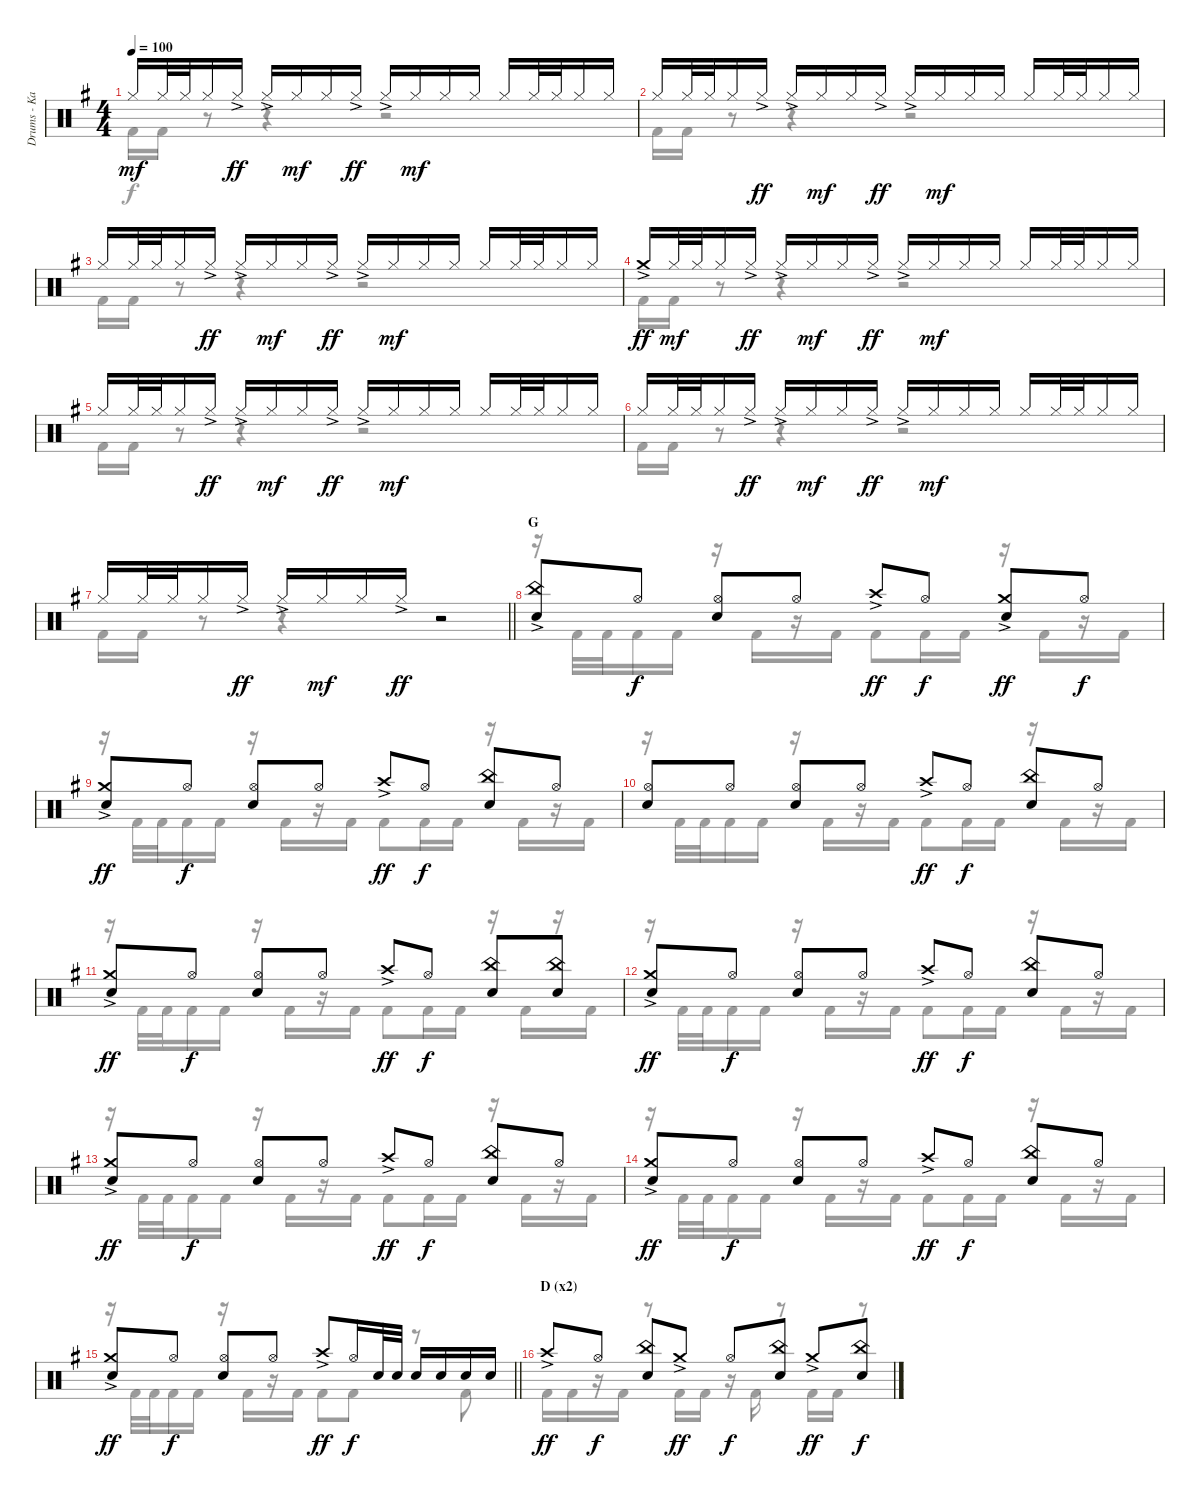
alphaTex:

\track ("Drums - Kai" "Drums - Ka") {instrument percussion}
\staff {score}
\articulation defaults
\voice
\ts (4 4)
\tempo 100
\clef neutral
\ks g "Hi-Hat (closed)".16{dy mf} "Hi-Hat (closed)".32 "Hi-Hat (closed)".32 "Hi-Hat (closed)".16 "Hi-Hat (closed)"{ac}.16{dy ff} "Hi-Hat (closed)"{ac}.16 "Hi-Hat (closed)".16{dy mf} "Hi-Hat (closed)".16 "Hi-Hat (closed)"{ac}.16{dy ff} "Hi-Hat (closed)"{ac}.16 "Hi-Hat (closed)".16{dy mf} "Hi-Hat (closed)".16 "Hi-Hat (closed)".16 "Hi-Hat (closed)".16 "Hi-Hat (closed)".32 "Hi-Hat (closed)".32 "Hi-Hat (closed)".16 "Hi-Hat (closed)".16
|
"Hi-Hat (closed)".16 "Hi-Hat (closed)".32 "Hi-Hat (closed)".32 "Hi-Hat (closed)".16 "Hi-Hat (closed)"{ac}.16{dy ff} "Hi-Hat (closed)"{ac}.16 "Hi-Hat (closed)".16{dy mf} "Hi-Hat (closed)".16 "Hi-Hat (closed)"{ac}.16{dy ff} "Hi-Hat (closed)"{ac}.16 "Hi-Hat (closed)".16{dy mf} "Hi-Hat (closed)".16 "Hi-Hat (closed)".16 "Hi-Hat (closed)".16 "Hi-Hat (closed)".32 "Hi-Hat (closed)".32 "Hi-Hat (closed)".16 "Hi-Hat (closed)".16 |
"Hi-Hat (closed)".16 "Hi-Hat (closed)".32 "Hi-Hat (closed)".32 "Hi-Hat (closed)".16 "Hi-Hat (closed)"{ac}.16{dy ff} "Hi-Hat (closed)"{ac}.16 "Hi-Hat (closed)".16{dy mf} "Hi-Hat (closed)".16 "Hi-Hat (closed)"{ac}.16{dy ff} "Hi-Hat (closed)"{ac}.16 "Hi-Hat (closed)".16{dy mf} "Hi-Hat (closed)".16 "Hi-Hat (closed)".16 "Hi-Hat (closed)".16 "Hi-Hat (closed)".32 "Hi-Hat (closed)".32 "Hi-Hat (closed)".16 "Hi-Hat (closed)".16 |
"Crash medium (hit)"{ac}.16{dy ff} "Hi-Hat (closed)".32{dy mf} "Hi-Hat (closed)".32 "Hi-Hat (closed)".16 "Hi-Hat (closed)"{ac}.16{dy ff} "Hi-Hat (closed)"{ac}.16 "Hi-Hat (closed)".16{dy mf} "Hi-Hat (closed)".16 "Hi-Hat (closed)"{ac}.16{dy ff} "Hi-Hat (closed)"{ac}.16 "Hi-Hat (closed)".16{dy mf} "Hi-Hat (closed)".16 "Hi-Hat (closed)".16 "Hi-Hat (closed)".16 "Hi-Hat (closed)".32 "Hi-Hat (closed)".32 "Hi-Hat (closed)".16 "Hi-Hat (closed)".16 |
"Hi-Hat (closed)".16 "Hi-Hat (closed)".32 "Hi-Hat (closed)".32 "Hi-Hat (closed)".16 "Hi-Hat (closed)"{ac}.16{dy ff} "Hi-Hat (closed)"{ac}.16 "Hi-Hat (closed)".16{dy mf} "Hi-Hat (closed)".16 "Hi-Hat (closed)"{ac}.16{dy ff} "Hi-Hat (closed)"{ac}.16 "Hi-Hat (closed)".16{dy mf} "Hi-Hat (closed)".16 "Hi-Hat (closed)".16 "Hi-Hat (closed)".16 "Hi-Hat (closed)".32 "Hi-Hat (closed)".32 "Hi-Hat (closed)".16 "Hi-Hat (closed)".16 |
"Hi-Hat (closed)".16 "Hi-Hat (closed)".32 "Hi-Hat (closed)".32 "Hi-Hat (closed)".16 "Hi-Hat (closed)"{ac}.16{dy ff} "Hi-Hat (closed)"{ac}.16 "Hi-Hat (closed)".16{dy mf} "Hi-Hat (closed)".16 "Hi-Hat (closed)"{ac}.16{dy ff} "Hi-Hat (closed)"{ac}.16 "Hi-Hat (closed)".16{dy mf} "Hi-Hat (closed)".16 "Hi-Hat (closed)".16 "Hi-Hat (closed)".16 "Hi-Hat (closed)".32 "Hi-Hat (closed)".32 "Hi-Hat (closed)".16 "Hi-Hat (closed)".16 |
\barLineRight lightlight "Hi-Hat (closed)".16 "Hi-Hat (closed)".32 "Hi-Hat (closed)".32 "Hi-Hat (closed)".16 "Hi-Hat (closed)"{ac}.16{dy ff} "Hi-Hat (closed)"{ac}.16 "Hi-Hat (closed)".16{dy mf} "Hi-Hat (closed)".16 "Hi-Hat (closed)"{ac}.16{dy ff}
r.2 |
\section ("" "G")
("China (hit)"{ac} "Electric Snare (hit)").8 "Hi-Hat (open)".8{dy f} ("Hi-Hat (open)" "Electric Snare (hit)").8 "Hi-Hat (open)".8 "Crash high (hit)"{ac}.8{dy ff} "Hi-Hat (open)".8{dy f} ("Crash medium (hit)"{ac} "Electric Snare (hit)").8{dy ff} "Hi-Hat (open)".8{dy f} |
("Crash medium (hit)"{ac} "Electric Snare (hit)").8{dy ff} "Hi-Hat (open)".8{dy f} ("Hi-Hat (open)" "Electric Snare (hit)").8 "Hi-Hat (open)".8 "Crash high (hit)"{ac}.8{dy ff} "Hi-Hat (open)".8{dy f} ("China (hit)" "Electric Snare (hit)").8 "Hi-Hat (open)".8 |
("Hi-Hat (open)" "Electric Snare (hit)").8 "Hi-Hat (open)".8 ("Hi-Hat (open)" "Electric Snare (hit)").8 "Hi-Hat (open)".8 "Crash high (hit)"{ac}.8{dy ff} "Hi-Hat (open)".8{dy f} ("China (hit)" "Electric Snare (hit)").8 "Hi-Hat (open)".8 |
("Crash medium (hit)"{ac} "Electric Snare (hit)").8{dy ff} "Hi-Hat (open)".8{dy f} ("Hi-Hat (open)" "Electric Snare (hit)").8 "Hi-Hat (open)".8 "Crash high (hit)"{ac}.8{dy ff} "Hi-Hat (open)".8{dy f} ("China (hit)" "Electric Snare (hit)").8 ("China (hit)" "Electric Snare (hit)").8 |
("Crash medium (hit)"{ac} "Electric Snare (hit)").8{dy ff} "Hi-Hat (open)".8{dy f} ("Hi-Hat (open)" "Electric Snare (hit)").8 "Hi-Hat (open)".8 "Crash high (hit)"{ac}.8{dy ff} "Hi-Hat (open)".8{dy f} ("China (hit)" "Electric Snare (hit)").8 "Hi-Hat (open)".8 |
("Crash medium (hit)"{ac} "Electric Snare (hit)").8{dy ff} "Hi-Hat (open)".8{dy f} ("Hi-Hat (open)" "Electric Snare (hit)").8 "Hi-Hat (open)".8 "Crash high (hit)"{ac}.8{dy ff} "Hi-Hat (open)".8{dy f} ("China (hit)" "Electric Snare (hit)").8 "Hi-Hat (open)".8 |
("Crash medium (hit)"{ac} "Electric Snare (hit)").8{dy ff} "Hi-Hat (open)".8{dy f} ("Hi-Hat (open)" "Electric Snare (hit)").8 "Hi-Hat (open)".8 "Crash high (hit)"{ac}.8{dy ff} "Hi-Hat (open)".8{dy f} ("China (hit)" "Electric Snare (hit)").8 "Hi-Hat (open)".8 |
\barLineRight lightlight
("Crash medium (hit)"{ac} "Electric Snare (hit)").8{dy ff} "Hi-Hat (open)".8{dy f} ("Hi-Hat (open)" "Electric Snare (hit)").8 "Hi-Hat (open)".8 "Crash high (hit)"{ac}.8{dy ff} "Hi-Hat (open)".16{dy f} "Electric Snare (hit)".32 "Electric Snare (hit)".32 "Electric Snare (hit)".16 "Electric Snare (hit)".16 "Electric Snare (hit)".16 "Electric Snare (hit)".16 |
\section ("" "D (x2)")
"Crash high (hit)"{ac}.8{dy ff} "Hi-Hat (open)".8{dy f} ("China (hit)" "Electric Snare (hit)").8 "Crash medium (hit)"{ac}.8{dy ff} "Hi-Hat (open)".8{dy f} ("China (hit)" "Electric Snare (hit)").8 "Crash medium (hit)"{ac}.8{dy ff} ("China (hit)" "Electric Snare (hit)").8{dy f}
\voice
\clef neutral
\ottava regular
\simile none
\ks g "Kick (hit) 2".16{dy f} "Kick (hit) 2".16
r.8 r.4 r.2 |
"Kick (hit) 2".16 "Kick (hit) 2".16 r.8 r.4 r.2 |
"Kick (hit) 2".16 "Kick (hit) 2".16 r.8 r.4 r.2 |
"Kick (hit) 2".16 "Kick (hit) 2".16 r.8 r.4 r.2 |
"Kick (hit) 2".16 "Kick (hit) 2".16 r.8 r.4 r.2 |
"Kick (hit) 2".16 "Kick (hit) 2".16 r.8 r.4 r.2 |
\barLineRight lightlight "Kick (hit) 2".16 "Kick (hit) 2".16
r.8 r.4 r.2 |
r.16 "Kick (hit) 2".32 "Kick (hit) 2".32 "Kick (hit) 2".16 "Kick (hit) 2".16 r.16 "Kick (hit) 2".16 r.16 "Kick (hit) 2".16 "Kick (hit) 2".8 "Kick (hit) 2".16 "Kick (hit) 2".16 r.16 "Kick (hit) 2".16 r.16 "Kick (hit) 2".16 |
r.16 "Kick (hit) 2".32 "Kick (hit) 2".32 "Kick (hit) 2".16 "Kick (hit) 2".16 r.16 "Kick (hit) 2".16 r.16 "Kick (hit) 2".16 "Kick (hit) 2".8 "Kick (hit) 2".16 "Kick (hit) 2".16 r.16 "Kick (hit) 2".16 r.16 "Kick (hit) 2".16 |
r.16 "Kick (hit) 2".32 "Kick (hit) 2".32 "Kick (hit) 2".16 "Kick (hit) 2".16 r.16 "Kick (hit) 2".16 r.16 "Kick (hit) 2".16 "Kick (hit) 2".8 "Kick (hit) 2".16 "Kick (hit) 2".16 r.16 "Kick (hit) 2".16 r.16 "Kick (hit) 2".16 |
r.16 "Kick (hit) 2".32 "Kick (hit) 2".32 "Kick (hit) 2".16 "Kick (hit) 2".16 r.16 "Kick (hit) 2".16 r.16 "Kick (hit) 2".16 "Kick (hit) 2".8 "Kick (hit) 2".16 "Kick (hit) 2".16 r.16 "Kick (hit) 2".16 r.16 "Kick (hit) 2".16 |
r.16 "Kick (hit) 2".32 "Kick (hit) 2".32 "Kick (hit) 2".16 "Kick (hit) 2".16 r.16 "Kick (hit) 2".16 r.16 "Kick (hit) 2".16 "Kick (hit) 2".8 "Kick (hit) 2".16 "Kick (hit) 2".16 r.16 "Kick (hit) 2".16 r.16 "Kick (hit) 2".16 |
r.16 "Kick (hit) 2".32 "Kick (hit) 2".32 "Kick (hit) 2".16 "Kick (hit) 2".16 r.16 "Kick (hit) 2".16 r.16 "Kick (hit) 2".16 "Kick (hit) 2".8 "Kick (hit) 2".16 "Kick (hit) 2".16 r.16 "Kick (hit) 2".16 r.16 "Kick (hit) 2".16 |
r.16 "Kick (hit) 2".32 "Kick (hit) 2".32 "Kick (hit) 2".16 "Kick (hit) 2".16 r.16 "Kick (hit) 2".16 r.16 "Kick (hit) 2".16 "Kick (hit) 2".8 "Kick (hit) 2".16 "Kick (hit) 2".16 r.16 "Kick (hit) 2".16 r.16 "Kick (hit) 2".16 |
\barLineRight lightlight
r.16 "Kick (hit) 2".32 "Kick (hit) 2".32 "Kick (hit) 2".16 "Kick (hit) 2".16 r.16 "Kick (hit) 2".16 r.16 "Kick (hit) 2".16 "Kick (hit) 2".8 "Kick (hit) 2".8 r.8 "Kick (hit) 2".8 |
"Kick (hit) 2".16 "Kick (hit) 2".16 r.16 "Kick (hit) 2".16 r.8 "Kick (hit) 2".16 "Kick (hit) 2".16 r.16 "Kick (hit) 2".16 r.8 "Kick (hit) 2".16 "Kick (hit) 2".16 r.8
